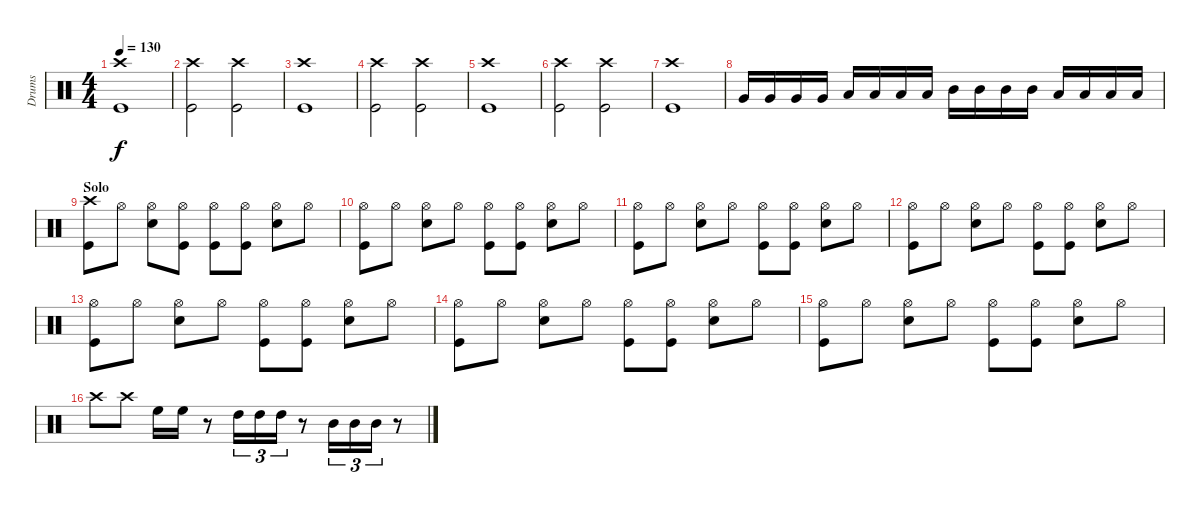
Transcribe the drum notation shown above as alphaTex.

\track ("Drums" "Drums") {instrument percussion}
\staff {score}
\articulation defaults
\ts (4 4)
\tempo 130
\clef neutral
\ks c
("Crash high (hit)" "Kick (hit)").1{dy f} |
("Crash high (hit)" "Kick (hit)").2 ("Crash high (hit)" "Kick (hit)").2 |
("Crash high (hit)" "Kick (hit)").1 |
("Crash high (hit)" "Kick (hit)").2 ("Crash high (hit)" "Kick (hit)").2 |
("Crash high (hit)" "Kick (hit)").1 |
("Crash high (hit)" "Kick (hit)").2 ("Crash high (hit)" "Kick (hit)").2 |
("Crash high (hit)" "Kick (hit)").1 |
"Very Low Tom (hit)".16 "Very Low Tom (hit)".16 "Very Low Tom (hit)".16 "Very Low Tom (hit)".16 "Low Tom (hit)".16 "Low Tom (hit)".16 "Low Tom (hit)".16 "Low Tom (hit)".16 "Mid Tom (hit)".16 "Mid Tom (hit)".16 "Mid Tom (hit)".16 "Mid Tom (hit)".16 "Low Tom (hit)".16 "Low Tom (hit)".16 "Low Tom (hit)".16 "Low Tom (hit)".16 |
\section ("" "Solo")
("Crash high (hit)" "Kick (hit)").8 "Hi-Hat (open)".8 ("Hi-Hat (open)" "Snare (hit) 2").8 ("Hi-Hat (open)" "Kick (hit)").8 ("Hi-Hat (open)" "Kick (hit)").8 ("Hi-Hat (open)" "Kick (hit)").8 ("Hi-Hat (open)" "Snare (hit) 2").8 "Hi-Hat (open)".8 |
("Hi-Hat (open)" "Kick (hit)").8 "Hi-Hat (open)".8 ("Hi-Hat (open)" "Snare (hit) 2").8 "Hi-Hat (open)".8 ("Hi-Hat (open)" "Kick (hit)").8 ("Hi-Hat (open)" "Kick (hit)").8 ("Hi-Hat (open)" "Snare (hit) 2").8 "Hi-Hat (open)".8 |
("Hi-Hat (open)" "Kick (hit)").8 "Hi-Hat (open)".8 ("Hi-Hat (open)" "Snare (hit) 2").8 "Hi-Hat (open)".8 ("Hi-Hat (open)" "Kick (hit)").8 ("Hi-Hat (open)" "Kick (hit)").8 ("Hi-Hat (open)" "Snare (hit) 2").8 "Hi-Hat (open)".8 |
("Hi-Hat (open)" "Kick (hit)").8 "Hi-Hat (open)".8 ("Hi-Hat (open)" "Snare (hit) 2").8 "Hi-Hat (open)".8 ("Hi-Hat (open)" "Kick (hit)").8 ("Hi-Hat (open)" "Kick (hit)").8 ("Hi-Hat (open)" "Snare (hit) 2").8 "Hi-Hat (open)".8 |
("Hi-Hat (open)" "Kick (hit)").8 "Hi-Hat (open)".8 ("Hi-Hat (open)" "Snare (hit) 2").8 "Hi-Hat (open)".8 ("Hi-Hat (open)" "Kick (hit)").8 ("Hi-Hat (open)" "Kick (hit)").8 ("Hi-Hat (open)" "Snare (hit) 2").8 "Hi-Hat (open)".8 |
("Hi-Hat (open)" "Kick (hit)").8 "Hi-Hat (open)".8 ("Hi-Hat (open)" "Snare (hit) 2").8 "Hi-Hat (open)".8 ("Hi-Hat (open)" "Kick (hit)").8 ("Hi-Hat (open)" "Kick (hit)").8 ("Hi-Hat (open)" "Snare (hit) 2").8 "Hi-Hat (open)".8 |
("Hi-Hat (open)" "Kick (hit)").8 "Hi-Hat (open)".8 ("Hi-Hat (open)" "Snare (hit) 2").8 "Hi-Hat (open)".8 ("Hi-Hat (open)" "Kick (hit)").8 ("Hi-Hat (open)" "Kick (hit)").8 ("Hi-Hat (open)" "Snare (hit) 2").8 "Hi-Hat (open)".8 |
"Crash high (hit)".8 "Crash high (hit)".8 "High Floor Tom (hit)".16 "High Floor Tom (hit)".16 r.8 "High Tom (hit)".16{tu (3 2)} "High Tom (hit)".16{tu (3 2)} "High Tom (hit)".16{tu (3 2)} r.8 "Mid Tom (hit)".16{tu (3 2)} "Mid Tom (hit)".16{tu (3 2)} "Mid Tom (hit)".16{tu (3 2)} r.8
